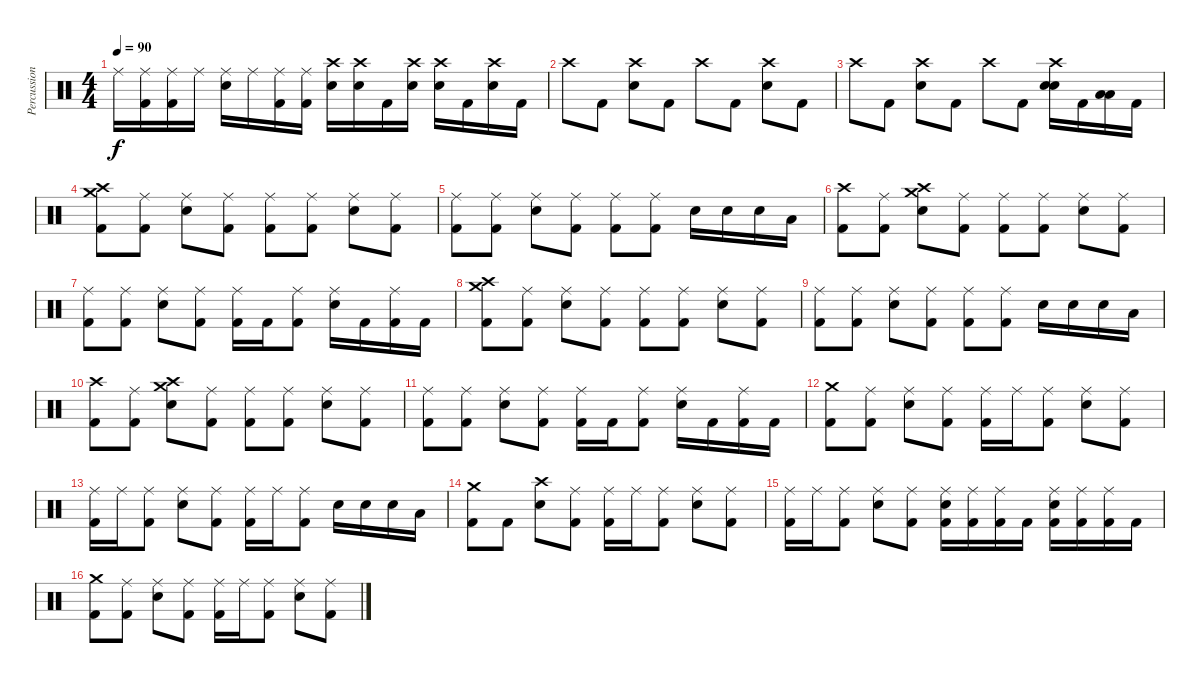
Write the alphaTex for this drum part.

\track ("Percussion" "Percussion") {instrument percussion}
\staff {score}
\articulation defaults
\ts (4 4)
\tempo 90
\clef neutral
\ks c "Ride (middle)".16{dy f}
("Ride (middle)" "Kick (hit) 2").16 ("Ride (middle)" "Kick (hit) 2").16 "Ride (middle)".16 ("Ride (middle)" "Electric Snare (hit)").16 "Ride (middle)".16 ("Ride (middle)" "Kick (hit) 2").16 ("Ride (middle)" "Kick (hit) 2").16 ("Crash high (hit)" "Electric Snare (hit)").16 ("Crash high (hit)" "Electric Snare (hit)").16 "Kick (hit) 2".16 ("Crash high (hit)" "Electric Snare (hit)").16 ("Crash high (hit)" "Electric Snare (hit)").16 "Kick (hit) 2".16 ("Crash high (hit)" "Electric Snare (hit)").16 "Kick (hit) 2".16 |
"Crash high (hit)".8 "Kick (hit) 2".8 ("Crash high (hit)" "Electric Snare (hit)").8 "Kick (hit) 2".8 "Crash high (hit)".8 "Kick (hit) 2".8 ("Crash high (hit)" "Electric Snare (hit)").8 "Kick (hit) 2".8 |
"Crash high (hit)".8 "Kick (hit) 2".8 ("Crash high (hit)" "Electric Snare (hit)").8 "Kick (hit) 2".8 "Crash high (hit)".8 "Kick (hit) 2".8 ("Crash high (hit)" "Electric Snare (hit)" "Electric Snare (hit)").16 "Kick (hit) 2".16 ("Low Tom (hit)" "Low Tom (hit)").16 "Kick (hit) 2".16 |
("Crash medium (hit)" "Crash high (hit)" "Kick (hit) 2").8 ("Ride (middle)" "Kick (hit) 2").8 ("Ride (middle)" "Electric Snare (hit)").8 ("Ride (middle)" "Kick (hit) 2").8 ("Ride (middle)" "Kick (hit) 2").8 ("Ride (middle)" "Kick (hit) 2").8 ("Ride (middle)" "Electric Snare (hit)").8 ("Ride (middle)" "Kick (hit) 2").8 |
("Ride (middle)" "Kick (hit) 2").8 ("Ride (middle)" "Kick (hit) 2").8 ("Ride (middle)" "Electric Snare (hit)").8 ("Ride (middle)" "Kick (hit) 2").8 ("Ride (middle)" "Kick (hit) 2").8 ("Ride (middle)" "Kick (hit) 2").8 "Electric Snare (hit)".16 "Electric Snare (hit)".16 "Electric Snare (hit)".16 "Low Tom (hit)".16 |
("Crash high (hit)" "Kick (hit) 2").8 ("Ride (middle)" "Kick (hit) 2").8 ("Crash medium (hit)" "Crash high (hit)" "Electric Snare (hit)").8 ("Ride (middle)" "Kick (hit) 2").8 ("Ride (middle)" "Kick (hit) 2").8 ("Ride (middle)" "Kick (hit) 2").8 ("Ride (middle)" "Electric Snare (hit)").8 ("Ride (middle)" "Kick (hit) 2").8 |
("Ride (middle)" "Kick (hit) 2").8 ("Ride (middle)" "Kick (hit) 2").8 ("Ride (middle)" "Electric Snare (hit)").8 ("Ride (middle)" "Kick (hit) 2").8 ("Ride (middle)" "Kick (hit) 2").16 "Kick (hit) 2".16 ("Ride (middle)" "Kick (hit) 2").8 ("Ride (middle)" "Electric Snare (hit)").16 "Kick (hit) 2".16 ("Ride (middle)" "Kick (hit) 2").16 "Kick (hit) 2".16 |
("Crash medium (hit)" "Crash high (hit)" "Kick (hit) 2").8 ("Ride (middle)" "Kick (hit) 2").8 ("Ride (middle)" "Electric Snare (hit)").8 ("Ride (middle)" "Kick (hit) 2").8 ("Ride (middle)" "Kick (hit) 2").8 ("Ride (middle)" "Kick (hit) 2").8 ("Ride (middle)" "Electric Snare (hit)").8 ("Ride (middle)" "Kick (hit) 2").8 |
("Ride (middle)" "Kick (hit) 2").8 ("Ride (middle)" "Kick (hit) 2").8 ("Ride (middle)" "Electric Snare (hit)").8 ("Ride (middle)" "Kick (hit) 2").8 ("Ride (middle)" "Kick (hit) 2").8 ("Ride (middle)" "Kick (hit) 2").8 "Electric Snare (hit)".16 "Electric Snare (hit)".16 "Electric Snare (hit)".16 "Low Tom (hit)".16 |
("Crash high (hit)" "Kick (hit) 2").8 ("Ride (middle)" "Kick (hit) 2").8 ("Crash medium (hit)" "Crash high (hit)" "Electric Snare (hit)").8 ("Ride (middle)" "Kick (hit) 2").8 ("Ride (middle)" "Kick (hit) 2").8 ("Ride (middle)" "Kick (hit) 2").8 ("Ride (middle)" "Electric Snare (hit)").8 ("Ride (middle)" "Kick (hit) 2").8 |
("Ride (middle)" "Kick (hit) 2").8 ("Ride (middle)" "Kick (hit) 2").8 ("Ride (middle)" "Electric Snare (hit)").8 ("Ride (middle)" "Kick (hit) 2").8 ("Ride (middle)" "Kick (hit) 2").16 "Kick (hit) 2".16 ("Ride (middle)" "Kick (hit) 2").8 ("Ride (middle)" "Electric Snare (hit)").16 "Kick (hit) 2".16 ("Ride (middle)" "Kick (hit) 2").16 "Kick (hit) 2".16 |
("Crash medium (hit)" "Kick (hit) 2").8 ("Ride (middle)" "Kick (hit) 2").8 ("Ride (middle)" "Electric Snare (hit)").8 ("Ride (middle)" "Kick (hit) 2").8 ("Ride (middle)" "Kick (hit) 2").16 "Ride (middle)".16 ("Ride (middle)" "Kick (hit) 2").8 ("Ride (middle)" "Electric Snare (hit)").8 ("Ride (middle)" "Kick (hit) 2").8 |
("Ride (middle)" "Kick (hit) 2").16 "Ride (middle)".16 ("Ride (middle)" "Kick (hit) 2").8 ("Ride (middle)" "Electric Snare (hit)").8 ("Ride (middle)" "Kick (hit) 2").8 ("Ride (middle)" "Kick (hit) 2").16 "Ride (middle)".16 ("Ride (middle)" "Kick (hit) 2").8 "Electric Snare (hit)".16 "Electric Snare (hit)".16 "Electric Snare (hit)".16 "Low Tom (hit)".16 |
("Crash medium (hit)" "Kick (hit) 2").8 "Kick (hit) 2".8 ("Crash high (hit)" "Electric Snare (hit)").8 ("Ride (middle)" "Kick (hit) 2").8 ("Ride (middle)" "Kick (hit) 2").16 "Ride (middle)".16 ("Ride (middle)" "Kick (hit) 2").8 ("Ride (middle)" "Electric Snare (hit)").8 ("Ride (middle)" "Kick (hit) 2").8 |
("Ride (middle)" "Kick (hit) 2").16 "Ride (middle)".16 ("Ride (middle)" "Kick (hit) 2").8 ("Ride (middle)" "Electric Snare (hit)").8 ("Ride (middle)" "Kick (hit) 2").8 ("Ride (middle)" "Electric Snare (hit)" "Kick (hit) 2").16 ("Ride (middle)" "Kick (hit) 2").16 ("Ride (middle)" "Kick (hit) 2").16 "Kick (hit) 2".16 ("Ride (middle)" "Electric Snare (hit)" "Kick (hit) 2").16 ("Ride (middle)" "Kick (hit) 2").16 ("Ride (middle)" "Kick (hit) 2").16 "Kick (hit) 2".16 |
("Crash medium (hit)" "Kick (hit) 2").8 ("Ride (middle)" "Kick (hit) 2").8 ("Ride (middle)" "Electric Snare (hit)").8 ("Ride (middle)" "Kick (hit) 2").8 ("Ride (middle)" "Kick (hit) 2").16 "Ride (middle)".16 ("Ride (middle)" "Kick (hit) 2").8 ("Ride (middle)" "Electric Snare (hit)").8 ("Ride (middle)" "Kick (hit) 2").8
